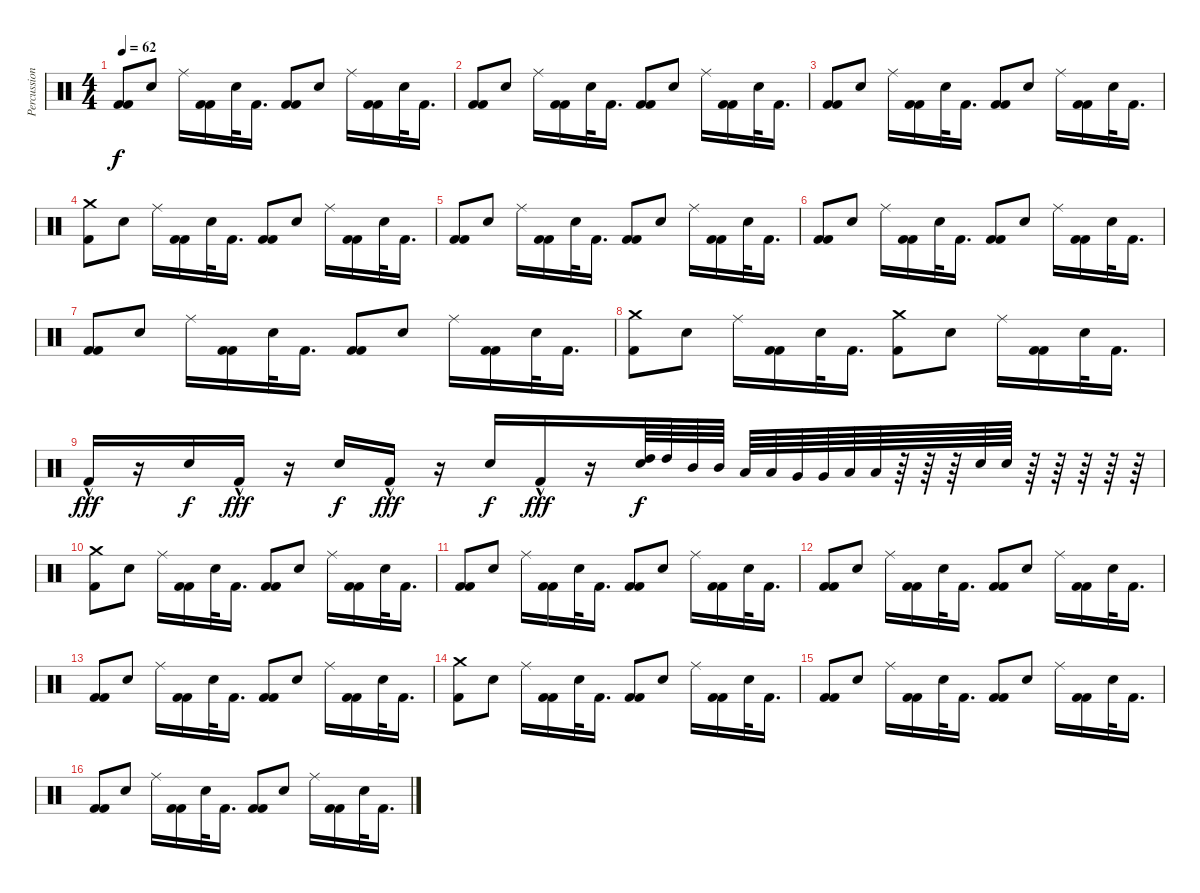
\track ("Percussion" "Percussion") {instrument percussion}
\staff {score}
\articulation defaults
\ts (4 4)
\tempo 62
\clef neutral
\ks c
("Kick (hit) 2" "Kick (hit) 2").8{dy f} "Electric Snare (hit)".8 "Ride (middle)".16 ("Kick (hit) 2" "Kick (hit) 2").16 "Electric Snare (hit)".32 "Kick (hit) 2".16{d} ("Kick (hit) 2" "Kick (hit) 2").8 "Electric Snare (hit)".8 "Ride (middle)".16 ("Kick (hit) 2" "Kick (hit) 2").16 "Electric Snare (hit)".32 "Kick (hit) 2".16{d} |
("Kick (hit) 2" "Kick (hit) 2").8 "Electric Snare (hit)".8 "Ride (middle)".16 ("Kick (hit) 2" "Kick (hit) 2").16 "Electric Snare (hit)".32 "Kick (hit) 2".16{d} ("Kick (hit) 2" "Kick (hit) 2").8 "Electric Snare (hit)".8 "Ride (middle)".16 ("Kick (hit) 2" "Kick (hit) 2").16 "Electric Snare (hit)".32 "Kick (hit) 2".16{d} |
("Kick (hit) 2" "Kick (hit) 2").8 "Electric Snare (hit)".8 "Ride (middle)".16 ("Kick (hit) 2" "Kick (hit) 2").16 "Electric Snare (hit)".32 "Kick (hit) 2".16{d} ("Kick (hit) 2" "Kick (hit) 2").8 "Electric Snare (hit)".8 "Ride (middle)".16 ("Kick (hit) 2" "Kick (hit) 2").16 "Electric Snare (hit)".32 "Kick (hit) 2".16{d} |
("Kick (hit) 2" "Crash medium (hit)").8 "Electric Snare (hit)".8 "Ride (middle)".16 ("Kick (hit) 2" "Kick (hit) 2").16 "Electric Snare (hit)".32 "Kick (hit) 2".16{d} ("Kick (hit) 2" "Kick (hit) 2").8 "Electric Snare (hit)".8 "Ride (middle)".16 ("Kick (hit) 2" "Kick (hit) 2").16 "Electric Snare (hit)".32 "Kick (hit) 2".16{d} |
("Kick (hit) 2" "Kick (hit) 2").8 "Electric Snare (hit)".8 "Ride (middle)".16 ("Kick (hit) 2" "Kick (hit) 2").16 "Electric Snare (hit)".32 "Kick (hit) 2".16{d} ("Kick (hit) 2" "Kick (hit) 2").8 "Electric Snare (hit)".8 "Ride (middle)".16 ("Kick (hit) 2" "Kick (hit) 2").16 "Electric Snare (hit)".32 "Kick (hit) 2".16{d} |
("Kick (hit) 2" "Kick (hit) 2").8 "Electric Snare (hit)".8 "Ride (middle)".16 ("Kick (hit) 2" "Kick (hit) 2").16 "Electric Snare (hit)".32 "Kick (hit) 2".16{d} ("Kick (hit) 2" "Kick (hit) 2").8 "Electric Snare (hit)".8 "Ride (middle)".16 ("Kick (hit) 2" "Kick (hit) 2").16 "Electric Snare (hit)".32 "Kick (hit) 2".16{d} |
("Kick (hit) 2" "Kick (hit) 2").8 "Electric Snare (hit)".8 "Ride (middle)".16 ("Kick (hit) 2" "Kick (hit) 2").16 "Electric Snare (hit)".32 "Kick (hit) 2".16{d} ("Kick (hit) 2" "Kick (hit) 2").8 "Electric Snare (hit)".8 "Ride (middle)".16 ("Kick (hit) 2" "Kick (hit) 2").16 "Electric Snare (hit)".32 "Kick (hit) 2".16{d} |
("Kick (hit) 2" "Crash medium (hit)").8 "Electric Snare (hit)".8 "Ride (middle)".16 ("Kick (hit) 2" "Kick (hit) 2").16 "Electric Snare (hit)".32 "Kick (hit) 2".16{d} ("Kick (hit) 2" "Crash medium (hit)").8 "Electric Snare (hit)".8 "Ride (middle)".16 ("Kick (hit) 2" "Kick (hit) 2").16 "Electric Snare (hit)".32 "Kick (hit) 2".16{d} |
"Kick (hit) 2"{hac}.16{dy fff} r.16 "Electric Snare (hit)".16{dy f} "Kick (hit) 2"{hac}.16{dy fff} r.16 "Electric Snare (hit)".16{dy f} "Kick (hit) 2"{hac}.16{dy fff} r.16 "Electric Snare (hit)".16{dy f} "Kick (hit) 2"{hac}.16{dy fff} r.16 ("Electric Snare (hit)" "High Tom (hit)").64{dy f} "High Tom (hit)".64 "Mid Tom (hit)".64 "Mid Tom (hit)".64 "Low Tom (hit)".64 "Low Tom (hit)".64 "Very Low Tom (hit)".64 "Very Low Tom (hit)".64 "Low Floor Tom (hit)".64 "Low Floor Tom (hit)".64 r.64 r.64 r.64 "Electric Snare (hit)".64 "Electric Snare (hit)".64 r.64 r.64 r.64 r.64 r.64 |
("Kick (hit) 2" "Crash medium (hit)").8 "Electric Snare (hit)".8 "Ride (middle)".16 ("Kick (hit) 2" "Kick (hit) 2").16 "Electric Snare (hit)".32 "Kick (hit) 2".16{d} ("Kick (hit) 2" "Kick (hit) 2").8 "Electric Snare (hit)".8 "Ride (middle)".16 ("Kick (hit) 2" "Kick (hit) 2").16 "Electric Snare (hit)".32 "Kick (hit) 2".16{d} |
("Kick (hit) 2" "Kick (hit) 2").8 "Electric Snare (hit)".8 "Ride (middle)".16 ("Kick (hit) 2" "Kick (hit) 2").16 "Electric Snare (hit)".32 "Kick (hit) 2".16{d} ("Kick (hit) 2" "Kick (hit) 2").8 "Electric Snare (hit)".8 "Ride (middle)".16 ("Kick (hit) 2" "Kick (hit) 2").16 "Electric Snare (hit)".32 "Kick (hit) 2".16{d} |
("Kick (hit) 2" "Kick (hit) 2").8 "Electric Snare (hit)".8 "Ride (middle)".16 ("Kick (hit) 2" "Kick (hit) 2").16 "Electric Snare (hit)".32 "Kick (hit) 2".16{d} ("Kick (hit) 2" "Kick (hit) 2").8 "Electric Snare (hit)".8 "Ride (middle)".16 ("Kick (hit) 2" "Kick (hit) 2").16 "Electric Snare (hit)".32 "Kick (hit) 2".16{d} |
("Kick (hit) 2" "Kick (hit) 2").8 "Electric Snare (hit)".8 "Ride (middle)".16 ("Kick (hit) 2" "Kick (hit) 2").16 "Electric Snare (hit)".32 "Kick (hit) 2".16{d} ("Kick (hit) 2" "Kick (hit) 2").8 "Electric Snare (hit)".8 "Ride (middle)".16 ("Kick (hit) 2" "Kick (hit) 2").16 "Electric Snare (hit)".32 "Kick (hit) 2".16{d} |
("Kick (hit) 2" "Crash medium (hit)").8 "Electric Snare (hit)".8 "Ride (middle)".16 ("Kick (hit) 2" "Kick (hit) 2").16 "Electric Snare (hit)".32 "Kick (hit) 2".16{d} ("Kick (hit) 2" "Kick (hit) 2").8 "Electric Snare (hit)".8 "Ride (middle)".16 ("Kick (hit) 2" "Kick (hit) 2").16 "Electric Snare (hit)".32 "Kick (hit) 2".16{d} |
("Kick (hit) 2" "Kick (hit) 2").8 "Electric Snare (hit)".8 "Ride (middle)".16 ("Kick (hit) 2" "Kick (hit) 2").16 "Electric Snare (hit)".32 "Kick (hit) 2".16{d} ("Kick (hit) 2" "Kick (hit) 2").8 "Electric Snare (hit)".8 "Ride (middle)".16 ("Kick (hit) 2" "Kick (hit) 2").16 "Electric Snare (hit)".32 "Kick (hit) 2".16{d} |
("Kick (hit) 2" "Kick (hit) 2").8 "Electric Snare (hit)".8 "Ride (middle)".16 ("Kick (hit) 2" "Kick (hit) 2").16 "Electric Snare (hit)".32 "Kick (hit) 2".16{d} ("Kick (hit) 2" "Kick (hit) 2").8 "Electric Snare (hit)".8 "Ride (middle)".16 ("Kick (hit) 2" "Kick (hit) 2").16 "Electric Snare (hit)".32 "Kick (hit) 2".16{d}
